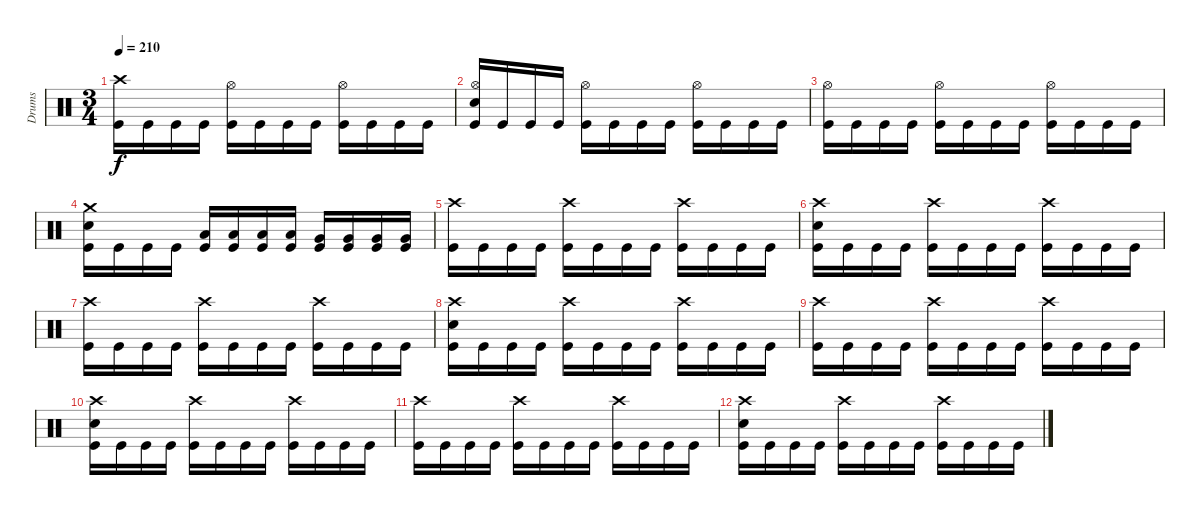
\track ("Drums" "Drums") {instrument percussion}
\staff {score}
\articulation defaults
\ts (3 4)
\tempo 210
\clef neutral
\ks c
("Crash high (hit)" "Kick (hit)").16{dy f volume 10} "Kick (hit)".16 "Kick (hit)".16 "Kick (hit)".16 ("Hi-Hat (open)" "Kick (hit)").16 "Kick (hit)".16 "Kick (hit)".16 "Kick (hit)".16 ("Hi-Hat (open)" "Kick (hit)").16 "Kick (hit)".16 "Kick (hit)".16 "Kick (hit)".16 |
("Hi-Hat (open)" "Electric Snare (hit)" "Kick (hit)").16 "Kick (hit)".16 "Kick (hit)".16 "Kick (hit)".16 ("Hi-Hat (open)" "Kick (hit)").16 "Kick (hit)".16 "Kick (hit)".16 "Kick (hit)".16 ("Hi-Hat (open)" "Kick (hit)").16 "Kick (hit)".16 "Kick (hit)".16 "Kick (hit)".16 |
("Hi-Hat (open)" "Kick (hit)").16{volume 8} "Kick (hit)".16 "Kick (hit)".16 "Kick (hit)".16 ("Hi-Hat (open)" "Kick (hit)").16 "Kick (hit)".16 "Kick (hit)".16 "Kick (hit)".16 ("Hi-Hat (open)" "Kick (hit)").16 "Kick (hit)".16 "Kick (hit)".16 "Kick (hit)".16 |
("Crash medium (hit)" "Electric Snare (hit)" "Kick (hit)").16 "Kick (hit)".16 "Kick (hit)".16 "Kick (hit)".16 ("Low Tom (hit)" "Kick (hit)").16 ("Low Tom (hit)" "Kick (hit)").16 ("Low Tom (hit)" "Kick (hit)").16 ("Low Tom (hit)" "Kick (hit)").16 ("Very Low Tom (hit)" "Kick (hit)").16 ("Very Low Tom (hit)" "Kick (hit)").16 ("Very Low Tom (hit)" "Kick (hit)").16 ("Very Low Tom (hit)" "Kick (hit)").16 |
("Crash high (hit)" "Kick (hit)").16{volume 6} "Kick (hit)".16 "Kick (hit)".16 "Kick (hit)".16 ("Crash high (hit)" "Kick (hit)").16 "Kick (hit)".16 "Kick (hit)".16 "Kick (hit)".16 ("Crash high (hit)" "Kick (hit)").16 "Kick (hit)".16 "Kick (hit)".16 "Kick (hit)".16 |
("Crash high (hit)" "Electric Snare (hit)" "Kick (hit)").16 "Kick (hit)".16 "Kick (hit)".16 "Kick (hit)".16 ("Crash high (hit)" "Kick (hit)").16 "Kick (hit)".16 "Kick (hit)".16 "Kick (hit)".16 ("Crash high (hit)" "Kick (hit)").16 "Kick (hit)".16 "Kick (hit)".16 "Kick (hit)".16 |
("Crash high (hit)" "Kick (hit)").16{volume 4} "Kick (hit)".16 "Kick (hit)".16 "Kick (hit)".16 ("Crash high (hit)" "Kick (hit)").16 "Kick (hit)".16 "Kick (hit)".16 "Kick (hit)".16 ("Crash high (hit)" "Kick (hit)").16 "Kick (hit)".16 "Kick (hit)".16 "Kick (hit)".16 |
("Crash high (hit)" "Electric Snare (hit)" "Kick (hit)").16 "Kick (hit)".16 "Kick (hit)".16 "Kick (hit)".16 ("Crash high (hit)" "Kick (hit)").16 "Kick (hit)".16 "Kick (hit)".16 "Kick (hit)".16 ("Crash high (hit)" "Kick (hit)").16 "Kick (hit)".16 "Kick (hit)".16 "Kick (hit)".16 |
("Crash high (hit)" "Kick (hit)").16{volume 2} "Kick (hit)".16 "Kick (hit)".16 "Kick (hit)".16 ("Crash high (hit)" "Kick (hit)").16 "Kick (hit)".16 "Kick (hit)".16 "Kick (hit)".16 ("Crash high (hit)" "Kick (hit)").16 "Kick (hit)".16 "Kick (hit)".16 "Kick (hit)".16 |
("Crash high (hit)" "Electric Snare (hit)" "Kick (hit)").16 "Kick (hit)".16 "Kick (hit)".16 "Kick (hit)".16 ("Crash high (hit)" "Kick (hit)").16 "Kick (hit)".16 "Kick (hit)".16 "Kick (hit)".16 ("Crash high (hit)" "Kick (hit)").16 "Kick (hit)".16 "Kick (hit)".16 "Kick (hit)".16 |
("Crash high (hit)" "Kick (hit)").16{volume 0} "Kick (hit)".16 "Kick (hit)".16 "Kick (hit)".16 ("Crash high (hit)" "Kick (hit)").16 "Kick (hit)".16 "Kick (hit)".16 "Kick (hit)".16 ("Crash high (hit)" "Kick (hit)").16 "Kick (hit)".16 "Kick (hit)".16 "Kick (hit)".16 |
("Crash high (hit)" "Electric Snare (hit)" "Kick (hit)").16 "Kick (hit)".16 "Kick (hit)".16 "Kick (hit)".16 ("Crash high (hit)" "Kick (hit)").16 "Kick (hit)".16 "Kick (hit)".16 "Kick (hit)".16 ("Crash high (hit)" "Kick (hit)").16 "Kick (hit)".16 "Kick (hit)".16 "Kick (hit)".16
